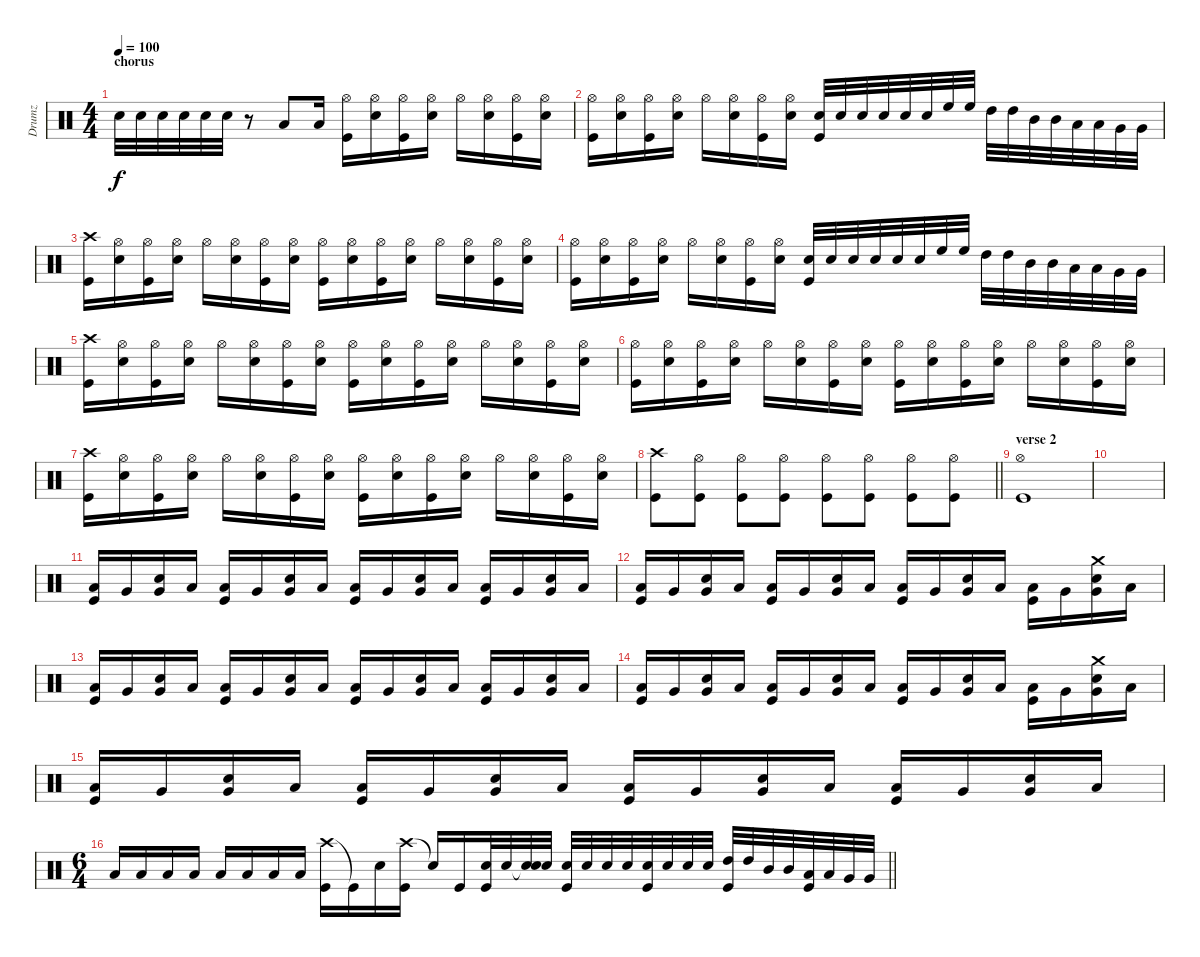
\track ("Drumz" "Drumz") {instrument percussion}
\staff {score}
\articulation defaults
\ts (4 4)
\section ("" "chorus")
\tempo 100
\clef neutral
\ks c "Electric Snare (hit)".32{dy f} "Electric Snare (hit)".32 "Electric Snare (hit)".32 "Electric Snare (hit)".32 "Electric Snare (hit)".32 "Electric Snare (hit)".32
r.8 "Low Floor Tom (hit)".8 "Low Floor Tom (hit)".16 ("Hi-Hat (open)" "Kick (hit)").16 ("Hi-Hat (open)" "Electric Snare (hit)").16 ("Hi-Hat (open)" "Kick (hit)").16 ("Hi-Hat (open)" "Electric Snare (hit)").16 "Hi-Hat (open)".16 ("Hi-Hat (open)" "Electric Snare (hit)").16 ("Hi-Hat (open)" "Kick (hit)").16 ("Hi-Hat (open)" "Electric Snare (hit)").16 |
("Hi-Hat (open)" "Kick (hit)").16 ("Hi-Hat (open)" "Electric Snare (hit)").16 ("Hi-Hat (open)" "Kick (hit)").16 ("Hi-Hat (open)" "Electric Snare (hit)").16 "Hi-Hat (open)".16 ("Hi-Hat (open)" "Electric Snare (hit)").16 ("Hi-Hat (open)" "Kick (hit)").16 ("Hi-Hat (open)" "Electric Snare (hit)").16 ("Kick (hit)" "Electric Snare (hit)").32 "Electric Snare (hit)".32 "Electric Snare (hit)".32 "Electric Snare (hit)".32 "Electric Snare (hit)".32 "Electric Snare (hit)".32 "High Floor Tom (hit)".32 "High Floor Tom (hit)".32 "High Tom (hit)".32 "High Tom (hit)".32 "Mid Tom (hit)".32 "Mid Tom (hit)".32 "Low Tom (hit)".32 "Low Tom (hit)".32 "Very Low Tom (hit)".32 "Very Low Tom (hit)".32 |
("Crash high (hit)" "Kick (hit)").16 ("Hi-Hat (open)" "Electric Snare (hit)").16 ("Hi-Hat (open)" "Kick (hit)").16 ("Hi-Hat (open)" "Electric Snare (hit)").16 "Hi-Hat (open)".16 ("Hi-Hat (open)" "Electric Snare (hit)").16 ("Hi-Hat (open)" "Kick (hit)").16 ("Hi-Hat (open)" "Electric Snare (hit)").16 ("Hi-Hat (open)" "Kick (hit)").16 ("Hi-Hat (open)" "Electric Snare (hit)").16 ("Hi-Hat (open)" "Kick (hit)").16 ("Hi-Hat (open)" "Electric Snare (hit)").16 "Hi-Hat (open)".16 ("Hi-Hat (open)" "Electric Snare (hit)").16 ("Hi-Hat (open)" "Kick (hit)").16 ("Hi-Hat (open)" "Electric Snare (hit)").16 |
("Hi-Hat (open)" "Kick (hit)").16 ("Hi-Hat (open)" "Electric Snare (hit)").16 ("Hi-Hat (open)" "Kick (hit)").16 ("Hi-Hat (open)" "Electric Snare (hit)").16 "Hi-Hat (open)".16 ("Hi-Hat (open)" "Electric Snare (hit)").16 ("Hi-Hat (open)" "Kick (hit)").16 ("Hi-Hat (open)" "Electric Snare (hit)").16 ("Kick (hit)" "Electric Snare (hit)").32 "Electric Snare (hit)".32 "Electric Snare (hit)".32 "Electric Snare (hit)".32 "Electric Snare (hit)".32 "Electric Snare (hit)".32 "High Floor Tom (hit)".32 "High Floor Tom (hit)".32 "High Tom (hit)".32 "High Tom (hit)".32 "Mid Tom (hit)".32 "Mid Tom (hit)".32 "Low Tom (hit)".32 "Low Tom (hit)".32 "Very Low Tom (hit)".32 "Very Low Tom (hit)".32 |
("Crash high (hit)" "Kick (hit)").16 ("Hi-Hat (open)" "Electric Snare (hit)").16 ("Hi-Hat (open)" "Kick (hit)").16 ("Hi-Hat (open)" "Electric Snare (hit)").16 "Hi-Hat (open)".16 ("Hi-Hat (open)" "Electric Snare (hit)").16 ("Hi-Hat (open)" "Kick (hit)").16 ("Hi-Hat (open)" "Electric Snare (hit)").16 ("Hi-Hat (open)" "Kick (hit)").16 ("Hi-Hat (open)" "Electric Snare (hit)").16 ("Hi-Hat (open)" "Kick (hit)").16 ("Hi-Hat (open)" "Electric Snare (hit)").16 "Hi-Hat (open)".16 ("Hi-Hat (open)" "Electric Snare (hit)").16 ("Hi-Hat (open)" "Kick (hit)").16 ("Hi-Hat (open)" "Electric Snare (hit)").16 |
("Hi-Hat (open)" "Kick (hit)").16 ("Hi-Hat (open)" "Electric Snare (hit)").16 ("Hi-Hat (open)" "Kick (hit)").16 ("Hi-Hat (open)" "Electric Snare (hit)").16 "Hi-Hat (open)".16 ("Hi-Hat (open)" "Electric Snare (hit)").16 ("Hi-Hat (open)" "Kick (hit)").16 ("Hi-Hat (open)" "Electric Snare (hit)").16 ("Hi-Hat (open)" "Kick (hit)").16 ("Hi-Hat (open)" "Electric Snare (hit)").16 ("Hi-Hat (open)" "Kick (hit)").16 ("Hi-Hat (open)" "Electric Snare (hit)").16 "Hi-Hat (open)".16 ("Hi-Hat (open)" "Electric Snare (hit)").16 ("Hi-Hat (open)" "Kick (hit)").16 ("Hi-Hat (open)" "Electric Snare (hit)").16 |
("Crash high (hit)" "Kick (hit)").16 ("Hi-Hat (open)" "Electric Snare (hit)").16 ("Hi-Hat (open)" "Kick (hit)").16 ("Hi-Hat (open)" "Electric Snare (hit)").16 "Hi-Hat (open)".16 ("Hi-Hat (open)" "Electric Snare (hit)").16 ("Hi-Hat (open)" "Kick (hit)").16 ("Hi-Hat (open)" "Electric Snare (hit)").16 ("Hi-Hat (open)" "Kick (hit)").16 ("Hi-Hat (open)" "Electric Snare (hit)").16 ("Hi-Hat (open)" "Kick (hit)").16 ("Hi-Hat (open)" "Electric Snare (hit)").16 "Hi-Hat (open)".16 ("Hi-Hat (open)" "Electric Snare (hit)").16 ("Hi-Hat (open)" "Kick (hit)").16 ("Hi-Hat (open)" "Electric Snare (hit)").16 |
\barLineRight lightlight
("Crash high (hit)" "Kick (hit)").8 ("Hi-Hat (open)" "Kick (hit)").8 ("Hi-Hat (open)" "Kick (hit)").8 ("Hi-Hat (open)" "Kick (hit)").8 ("Hi-Hat (open)" "Kick (hit)").8 ("Hi-Hat (open)" "Kick (hit)").8 ("Hi-Hat (open)" "Kick (hit)").8 ("Hi-Hat (open)" "Kick (hit)").8 |
\section ("" "verse 2")
("Hi-Hat (open)" "Kick (hit)").1 |
|
("Low Tom (hit)" "Kick (hit)").16 "Very Low Tom (hit)".16 ("Electric Snare (hit)" "Very Low Tom (hit)").16 "Low Floor Tom (hit)".16 ("Low Tom (hit)" "Kick (hit)").16 "Very Low Tom (hit)".16 ("Electric Snare (hit)" "Very Low Tom (hit)").16 "Low Floor Tom (hit)".16 ("Low Tom (hit)" "Kick (hit)").16 "Very Low Tom (hit)".16 ("Electric Snare (hit)" "Very Low Tom (hit)").16 "Low Floor Tom (hit)".16 ("Low Tom (hit)" "Kick (hit)").16 "Very Low Tom (hit)".16 ("Electric Snare (hit)" "Very Low Tom (hit)").16 "Low Floor Tom (hit)".16 |
("Low Tom (hit)" "Kick (hit)").16 "Very Low Tom (hit)".16 ("Electric Snare (hit)" "Very Low Tom (hit)").16 "Low Floor Tom (hit)".16 ("Low Tom (hit)" "Kick (hit)").16 "Very Low Tom (hit)".16 ("Electric Snare (hit)" "Very Low Tom (hit)").16 "Low Floor Tom (hit)".16 ("Low Tom (hit)" "Kick (hit)").16 "Very Low Tom (hit)".16 ("Electric Snare (hit)" "Very Low Tom (hit)").16 "Low Floor Tom (hit)".16 ("Low Tom (hit)" "Kick (hit)").16 "Very Low Tom (hit)".16 ("Crash medium (hit)" "Electric Snare (hit)" "Very Low Tom (hit)").16 "Low Floor Tom (hit)".16 |
("Low Tom (hit)" "Kick (hit)").16 "Very Low Tom (hit)".16 ("Electric Snare (hit)" "Very Low Tom (hit)").16 "Low Floor Tom (hit)".16 ("Low Tom (hit)" "Kick (hit)").16 "Very Low Tom (hit)".16 ("Electric Snare (hit)" "Very Low Tom (hit)").16 "Low Floor Tom (hit)".16 ("Low Tom (hit)" "Kick (hit)").16 "Very Low Tom (hit)".16 ("Electric Snare (hit)" "Very Low Tom (hit)").16 "Low Floor Tom (hit)".16 ("Low Tom (hit)" "Kick (hit)").16 "Very Low Tom (hit)".16 ("Electric Snare (hit)" "Very Low Tom (hit)").16 "Low Floor Tom (hit)".16 |
("Low Tom (hit)" "Kick (hit)").16 "Very Low Tom (hit)".16 ("Electric Snare (hit)" "Very Low Tom (hit)").16 "Low Floor Tom (hit)".16 ("Low Tom (hit)" "Kick (hit)").16 "Very Low Tom (hit)".16 ("Electric Snare (hit)" "Very Low Tom (hit)").16 "Low Floor Tom (hit)".16 ("Low Tom (hit)" "Kick (hit)").16 "Very Low Tom (hit)".16 ("Electric Snare (hit)" "Very Low Tom (hit)").16 "Low Floor Tom (hit)".16 ("Low Tom (hit)" "Kick (hit)").16 "Very Low Tom (hit)".16 ("Crash medium (hit)" "Electric Snare (hit)" "Very Low Tom (hit)").16 "Low Floor Tom (hit)".16 |
("Low Tom (hit)" "Kick (hit)").16 "Very Low Tom (hit)".16 ("Electric Snare (hit)" "Very Low Tom (hit)").16 "Low Floor Tom (hit)".16 ("Low Tom (hit)" "Kick (hit)").16 "Very Low Tom (hit)".16 ("Electric Snare (hit)" "Very Low Tom (hit)").16 "Low Floor Tom (hit)".16 ("Low Tom (hit)" "Kick (hit)").16 "Very Low Tom (hit)".16 ("Electric Snare (hit)" "Very Low Tom (hit)").16 "Low Floor Tom (hit)".16 ("Low Tom (hit)" "Kick (hit)").16 "Very Low Tom (hit)".16 ("Electric Snare (hit)" "Very Low Tom (hit)").16 "Low Floor Tom (hit)".16 |
\ts (6 4)
\barLineRight lightlight "Low Floor Tom (hit)".16 "Low Floor Tom (hit)".16 "Low Floor Tom (hit)".16 "Low Floor Tom (hit)".16 "Low Floor Tom (hit)".16 "Low Floor Tom (hit)".16 "Low Floor Tom (hit)".16 "Low Floor Tom (hit)".16
("Crash high (hit)" "Kick (hit)").16 "Kick (hit)"{t}.16 "Electric Snare (hit)".16 ("Crash high (hit)" "Kick (hit)").16 "Snare (hit)"{t}.16 "Kick (hit)".16 ("Kick (hit)" "Electric Snare (hit)").32 "Electric Snare (hit)".32 ("Snare (hit)"{t} "Electric Snare (hit)").32 "Electric Snare (hit)".32 ("Kick (hit)" "Electric Snare (hit)").32 "Electric Snare (hit)".32 "Electric Snare (hit)".32 "Electric Snare (hit)".32 ("Kick (hit)" "Electric Snare (hit)").32 "Electric Snare (hit)".32 "Electric Snare (hit)".32 "Electric Snare (hit)".32 ("Kick (hit)" "High Tom (hit)").32 "High Tom (hit)".32 "Mid Tom (hit)".32 "Mid Tom (hit)".32 ("Kick (hit)" "Low Tom (hit)").32 "Low Tom (hit)".32 "Very Low Tom (hit)".32 "Very Low Tom (hit)".32
